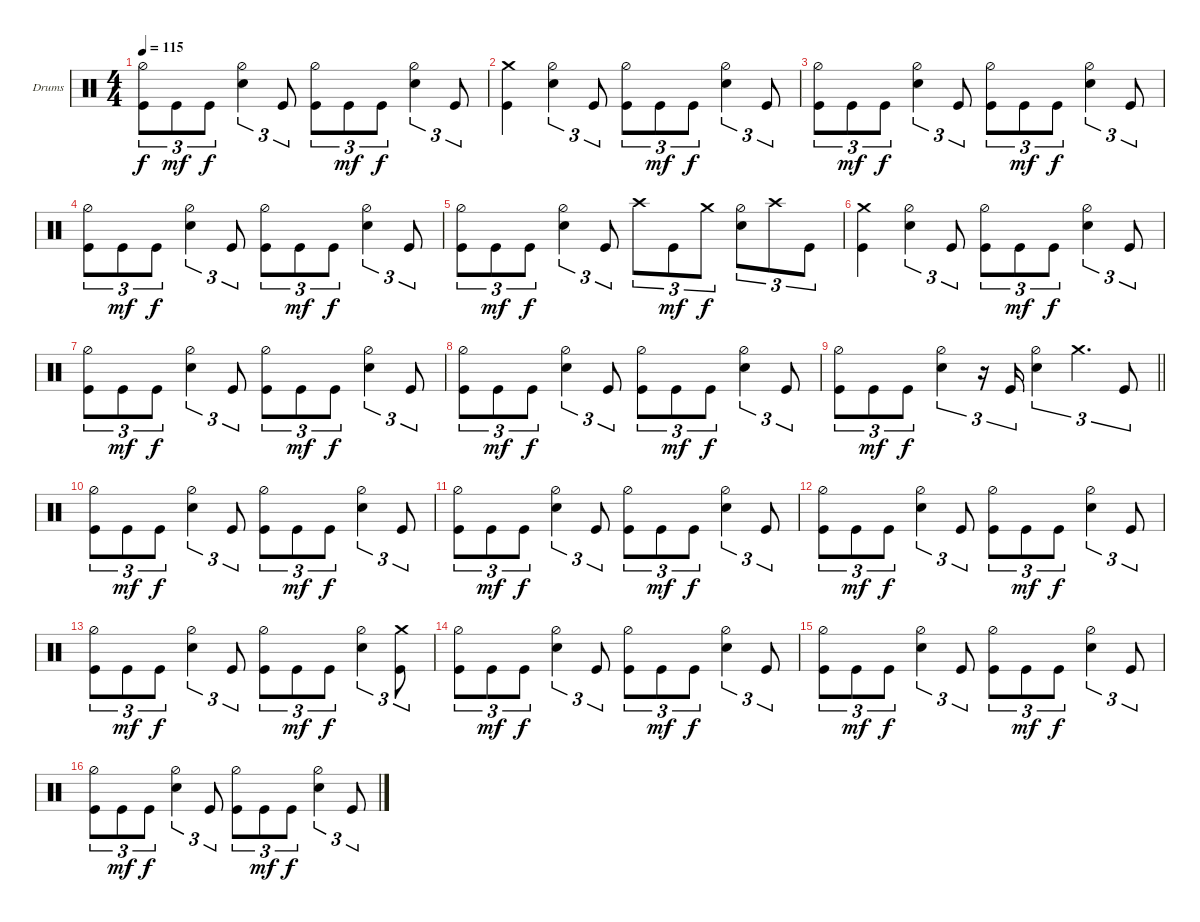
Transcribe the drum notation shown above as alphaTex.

\defaultSystemsLayout 4
\bracketExtendMode groupsimilarinstruments
\firstSystemTrackNameOrientation horizontal
\otherSystemsTrackNameOrientation horizontal
\track ("Drumkit" "Drums") {instrument percussion}
\staff {score}
\articulation defaults
\ts (4 4)
\tempo 115
\clef neutral
\ks aminor
("Kick (hit)" "Hi-Hat (half)").8{tu (3 2) dy f} "Kick (hit)".8{tu (3 2) dy mf} "Kick (hit)".8{tu (3 2) dy f} ("Snare (hit) 2" "Hi-Hat (half)").4{tu (3 2)} "Kick (hit)".8{tu (3 2)} ("Kick (hit)" "Hi-Hat (half)").8{tu (3 2)} "Kick (hit)".8{tu (3 2) dy mf} "Kick (hit)".8{tu (3 2) dy f} ("Snare (hit) 2" "Hi-Hat (half)").4{tu (3 2)} "Kick (hit)".8{tu (3 2)} |
("Kick (hit)" "Crash medium (hit)").4 ("Snare (hit) 2" "Hi-Hat (half)").4{tu (3 2)} "Kick (hit)".8{tu (3 2)} ("Kick (hit)" "Hi-Hat (half)").8{tu (3 2)} "Kick (hit)".8{tu (3 2) dy mf} "Kick (hit)".8{tu (3 2) dy f} ("Snare (hit) 2" "Hi-Hat (half)").4{tu (3 2)} "Kick (hit)".8{tu (3 2)} |
("Kick (hit)" "Hi-Hat (half)").8{tu (3 2)} "Kick (hit)".8{tu (3 2) dy mf} "Kick (hit)".8{tu (3 2) dy f} ("Snare (hit) 2" "Hi-Hat (half)").4{tu (3 2)} "Kick (hit)".8{tu (3 2)} ("Kick (hit)" "Hi-Hat (half)").8{tu (3 2)} "Kick (hit)".8{tu (3 2) dy mf} "Kick (hit)".8{tu (3 2) dy f} ("Snare (hit) 2" "Hi-Hat (half)").4{tu (3 2)} "Kick (hit)".8{tu (3 2)} |
("Kick (hit)" "Hi-Hat (half)").8{tu (3 2)} "Kick (hit)".8{tu (3 2) dy mf} "Kick (hit)".8{tu (3 2) dy f} ("Snare (hit) 2" "Hi-Hat (half)").4{tu (3 2)} "Kick (hit)".8{tu (3 2)} ("Kick (hit)" "Hi-Hat (half)").8{tu (3 2)} "Kick (hit)".8{tu (3 2) dy mf} "Kick (hit)".8{tu (3 2) dy f} ("Snare (hit) 2" "Hi-Hat (half)").4{tu (3 2)} "Kick (hit)".8{tu (3 2)} |
("Kick (hit)" "Hi-Hat (half)").8{tu (3 2)} "Kick (hit)".8{tu (3 2) dy mf} "Kick (hit)".8{tu (3 2) dy f} ("Snare (hit) 2" "Hi-Hat (half)").4{tu (3 2)} "Kick (hit)".8{tu (3 2)} "Crash high (hit)".8{tu (3 2)} "Kick (hit)".8{tu (3 2) dy mf} "Crash medium (hit)".8{tu (3 2) dy f} ("Snare (hit) 2" "Hi-Hat (half)").8{tu (3 2)} "Crash high (hit)".8{tu (3 2)} "Kick (hit)".8{tu (3 2)} |
("Kick (hit)" "Crash medium (hit)").4 ("Snare (hit) 2" "Hi-Hat (half)").4{tu (3 2)} "Kick (hit)".8{tu (3 2)} ("Kick (hit)" "Hi-Hat (half)").8{tu (3 2)} "Kick (hit)".8{tu (3 2) dy mf} "Kick (hit)".8{tu (3 2) dy f} ("Snare (hit) 2" "Hi-Hat (half)").4{tu (3 2)} "Kick (hit)".8{tu (3 2)} |
("Kick (hit)" "Hi-Hat (half)").8{tu (3 2)} "Kick (hit)".8{tu (3 2) dy mf} "Kick (hit)".8{tu (3 2) dy f} ("Snare (hit) 2" "Hi-Hat (half)").4{tu (3 2)} "Kick (hit)".8{tu (3 2)} ("Kick (hit)" "Hi-Hat (half)").8{tu (3 2)} "Kick (hit)".8{tu (3 2) dy mf} "Kick (hit)".8{tu (3 2) dy f} ("Snare (hit) 2" "Hi-Hat (half)").4{tu (3 2)} "Kick (hit)".8{tu (3 2)} |
("Kick (hit)" "Hi-Hat (half)").8{tu (3 2)} "Kick (hit)".8{tu (3 2) dy mf} "Kick (hit)".8{tu (3 2) dy f} ("Snare (hit) 2" "Hi-Hat (half)").4{tu (3 2)} "Kick (hit)".8{tu (3 2)} ("Kick (hit)" "Hi-Hat (half)").8{tu (3 2)} "Kick (hit)".8{tu (3 2) dy mf} "Kick (hit)".8{tu (3 2) dy f} ("Snare (hit) 2" "Hi-Hat (half)").4{tu (3 2)} "Kick (hit)".8{tu (3 2)} |
\barLineRight lightlight
("Kick (hit)" "Hi-Hat (half)").8{tu (3 2)} "Kick (hit)".8{tu (3 2) dy mf} "Kick (hit)".8{tu (3 2) dy f} ("Snare (hit) 2" "Hi-Hat (half)").4{tu (3 2)} r.16{tu (3 2)} "Kick (hit)".16{tu (3 2)} ("Snare (hit) 2" "Hi-Hat (half)").4{tu (3 2)} "Crash medium (hit)".4{d tu (3 2)} "Kick (hit)".8{tu (3 2)} |
("Kick (hit)" "Hi-Hat (half)").8{tu (3 2)} "Kick (hit)".8{tu (3 2) dy mf} "Kick (hit)".8{tu (3 2) dy f} ("Snare (hit) 2" "Hi-Hat (half)").4{tu (3 2)} "Kick (hit)".8{tu (3 2)} ("Kick (hit)" "Hi-Hat (half)").8{tu (3 2)} "Kick (hit)".8{tu (3 2) dy mf} "Kick (hit)".8{tu (3 2) dy f} ("Snare (hit) 2" "Hi-Hat (half)").4{tu (3 2)} "Kick (hit)".8{tu (3 2)} |
("Kick (hit)" "Hi-Hat (half)").8{tu (3 2)} "Kick (hit)".8{tu (3 2) dy mf} "Kick (hit)".8{tu (3 2) dy f} ("Snare (hit) 2" "Hi-Hat (half)").4{tu (3 2)} "Kick (hit)".8{tu (3 2)} ("Kick (hit)" "Hi-Hat (half)").8{tu (3 2)} "Kick (hit)".8{tu (3 2) dy mf} "Kick (hit)".8{tu (3 2) dy f} ("Snare (hit) 2" "Hi-Hat (half)").4{tu (3 2)} "Kick (hit)".8{tu (3 2)} |
("Kick (hit)" "Hi-Hat (half)").8{tu (3 2)} "Kick (hit)".8{tu (3 2) dy mf} "Kick (hit)".8{tu (3 2) dy f} ("Snare (hit) 2" "Hi-Hat (half)").4{tu (3 2)} "Kick (hit)".8{tu (3 2)} ("Kick (hit)" "Hi-Hat (half)").8{tu (3 2)} "Kick (hit)".8{tu (3 2) dy mf} "Kick (hit)".8{tu (3 2) dy f} ("Snare (hit) 2" "Hi-Hat (half)").4{tu (3 2)} "Kick (hit)".8{tu (3 2)} |
("Kick (hit)" "Hi-Hat (half)").8{tu (3 2)} "Kick (hit)".8{tu (3 2) dy mf} "Kick (hit)".8{tu (3 2) dy f} ("Snare (hit) 2" "Hi-Hat (half)").4{tu (3 2)} "Kick (hit)".8{tu (3 2)} ("Kick (hit)" "Hi-Hat (half)").8{tu (3 2)} "Kick (hit)".8{tu (3 2) dy mf} "Kick (hit)".8{tu (3 2) dy f} ("Snare (hit) 2" "Hi-Hat (half)").4{tu (3 2)} ("Kick (hit)" "Crash medium (hit)").8{tu (3 2)} |
("Kick (hit)" "Hi-Hat (half)").8{tu (3 2)} "Kick (hit)".8{tu (3 2) dy mf} "Kick (hit)".8{tu (3 2) dy f} ("Snare (hit) 2" "Hi-Hat (half)").4{tu (3 2)} "Kick (hit)".8{tu (3 2)} ("Kick (hit)" "Hi-Hat (half)").8{tu (3 2)} "Kick (hit)".8{tu (3 2) dy mf} "Kick (hit)".8{tu (3 2) dy f} ("Snare (hit) 2" "Hi-Hat (half)").4{tu (3 2)} "Kick (hit)".8{tu (3 2)} |
("Kick (hit)" "Hi-Hat (half)").8{tu (3 2)} "Kick (hit)".8{tu (3 2) dy mf} "Kick (hit)".8{tu (3 2) dy f} ("Snare (hit) 2" "Hi-Hat (half)").4{tu (3 2)} "Kick (hit)".8{tu (3 2)} ("Kick (hit)" "Hi-Hat (half)").8{tu (3 2)} "Kick (hit)".8{tu (3 2) dy mf} "Kick (hit)".8{tu (3 2) dy f} ("Snare (hit) 2" "Hi-Hat (half)").4{tu (3 2)} "Kick (hit)".8{tu (3 2)} |
("Kick (hit)" "Hi-Hat (half)").8{tu (3 2)} "Kick (hit)".8{tu (3 2) dy mf} "Kick (hit)".8{tu (3 2) dy f} ("Snare (hit) 2" "Hi-Hat (half)").4{tu (3 2)} "Kick (hit)".8{tu (3 2)} ("Kick (hit)" "Hi-Hat (half)").8{tu (3 2)} "Kick (hit)".8{tu (3 2) dy mf} "Kick (hit)".8{tu (3 2) dy f} ("Snare (hit) 2" "Hi-Hat (half)").4{tu (3 2)} "Kick (hit)".8{tu (3 2)}
